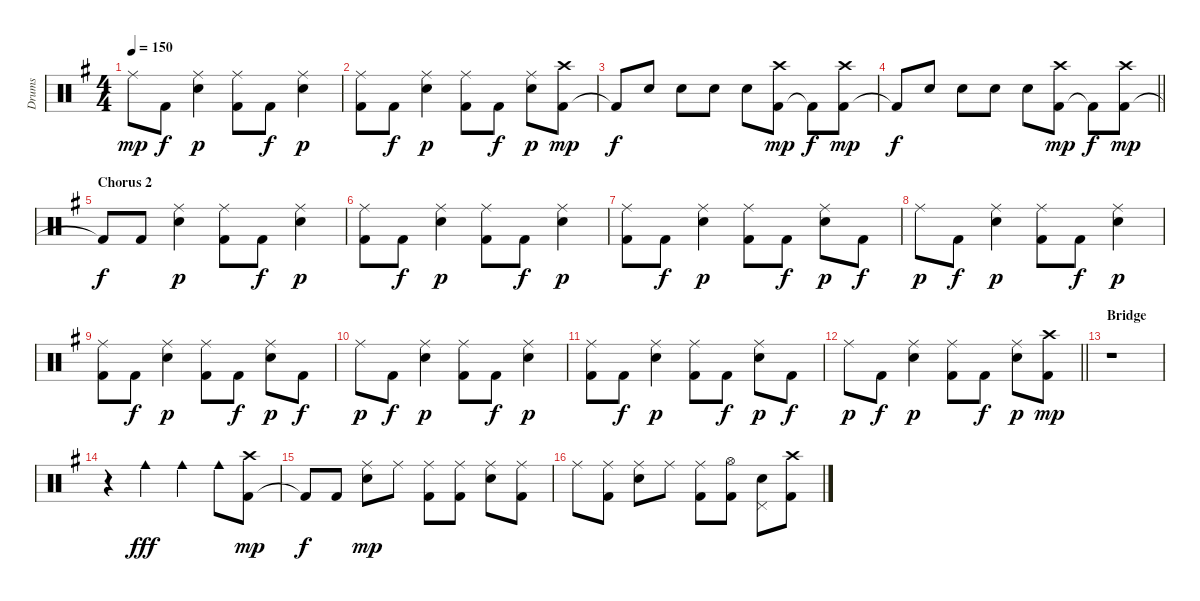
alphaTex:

\track ("Drums" "Drums") {instrument percussion}
\staff {score}
\articulation defaults
\ts (4 4)
\tempo 150
\clef neutral
\ks g "Ride (middle)".8{dy mp} "Kick (hit) 2".8{dy f}
("Electric Snare (hit)" "Ride (middle)").4{dy p} ("Kick (hit) 2" "Ride (middle)").8 "Kick (hit) 2".8{dy f} ("Electric Snare (hit)" "Ride (middle)").4{dy p} |
("Kick (hit) 2" "Ride (middle)").8 "Kick (hit) 2".8{dy f} ("Electric Snare (hit)" "Ride (middle)").4{dy p} ("Kick (hit) 2" "Ride (middle)").8 "Kick (hit) 2".8{dy f} ("Electric Snare (hit)" "Ride (middle)").8{dy p} ("Kick (hit) 2" "Crash high (hit)").8{dy mp} |
"Kick (hit) 2"{t}.8{dy f} "Electric Snare (hit)".8 "Electric Snare (hit)".8 "Electric Snare (hit)".8 "Electric Snare (hit)".8 ("Kick (hit) 2" "Crash high (hit)").8{dy mp} "Kick (hit) 2"{t}.8{dy f} ("Kick (hit) 2" "Crash high (hit)").8{dy mp} |
\barLineRight lightlight "Kick (hit) 2"{t}.8{dy f} "Electric Snare (hit)".8 "Electric Snare (hit)".8 "Electric Snare (hit)".8 "Electric Snare (hit)".8
("Kick (hit) 2" "Crash high (hit)").8{dy mp} "Kick (hit) 2"{t}.8{dy f} ("Kick (hit) 2" "Crash high (hit)").8{dy mp} |
\section ("" "Chorus 2")
"Kick (hit) 2"{t}.8{dy f} "Kick (hit) 2".8 ("Electric Snare (hit)" "Ride (middle)").4{dy p} ("Kick (hit) 2" "Ride (middle)").8 "Kick (hit) 2".8{dy f} ("Electric Snare (hit)" "Ride (middle)").4{dy p} |
("Kick (hit) 2" "Ride (middle)").8 "Kick (hit) 2".8{dy f} ("Electric Snare (hit)" "Ride (middle)").4{dy p} ("Kick (hit) 2" "Ride (middle)").8 "Kick (hit) 2".8{dy f} ("Electric Snare (hit)" "Ride (middle)").4{dy p} |
("Kick (hit) 2" "Ride (middle)").8 "Kick (hit) 2".8{dy f} ("Electric Snare (hit)" "Ride (middle)").4{dy p} ("Kick (hit) 2" "Ride (middle)").8 "Kick (hit) 2".8{dy f} ("Electric Snare (hit)" "Ride (middle)").8{dy p} "Kick (hit) 2".8{dy f} |
"Ride (middle)".8{dy p} "Kick (hit) 2".8{dy f} ("Electric Snare (hit)" "Ride (middle)").4{dy p} ("Kick (hit) 2" "Ride (middle)").8 "Kick (hit) 2".8{dy f} ("Electric Snare (hit)" "Ride (middle)").4{dy p} |
("Kick (hit) 2" "Ride (middle)").8 "Kick (hit) 2".8{dy f} ("Electric Snare (hit)" "Ride (middle)").4{dy p} ("Kick (hit) 2" "Ride (middle)").8 "Kick (hit) 2".8{dy f} ("Electric Snare (hit)" "Ride (middle)").8{dy p} "Kick (hit) 2".8{dy f} |
"Ride (middle)".8{dy p} "Kick (hit) 2".8{dy f} ("Electric Snare (hit)" "Ride (middle)").4{dy p} ("Kick (hit) 2" "Ride (middle)").8 "Kick (hit) 2".8{dy f} ("Electric Snare (hit)" "Ride (middle)").4{dy p} |
("Kick (hit) 2" "Ride (middle)").8 "Kick (hit) 2".8{dy f} ("Electric Snare (hit)" "Ride (middle)").4{dy p} ("Kick (hit) 2" "Ride (middle)").8 "Kick (hit) 2".8{dy f} ("Electric Snare (hit)" "Ride (middle)").8{dy p} "Kick (hit) 2".8{dy f} |
\barLineRight lightlight "Ride (middle)".8{dy p} "Kick (hit) 2".8{dy f}
("Electric Snare (hit)" "Ride (middle)").4{dy p} ("Kick (hit) 2" "Ride (middle)").8 "Kick (hit) 2".8{dy f} ("Electric Snare (hit)" "Ride (middle)").8{dy p} ("Kick (hit) 2" "Crash high (hit)").8{dy mp} |
\section ("" "Bridge")
r.1 |
r.4 "Cowbell medium (hit)".4{dy fff volume 16} "Cowbell medium (hit)".4 "Cowbell medium (hit)".8 ("Kick (hit) 2" "Crash high (hit)").8{dy mp volume 13} |
"Kick (hit) 2"{t}.8{dy f} "Kick (hit) 2".8 ("Electric Snare (hit)" "Ride (middle)").8{dy mp} "Ride (middle)".8 ("Kick (hit) 2" "Ride (middle)").8 ("Kick (hit) 2" "Ride (middle)").8 ("Electric Snare (hit)" "Ride (middle)").8 ("Kick (hit) 2" "Ride (middle)").8 |
"Ride (middle)".8 ("Kick (hit) 2" "Ride (middle)").8 ("Electric Snare (hit)" "Ride (middle)").8 "Ride (middle)".8 ("Kick (hit) 2" "Ride (middle)").8 ("Kick (hit) 2" "Hi-Hat (open)").8 ("Electric Snare (hit)" "Pedal Hi-Hat (hit)").8 ("Kick (hit) 2" "Crash high (hit)").8
